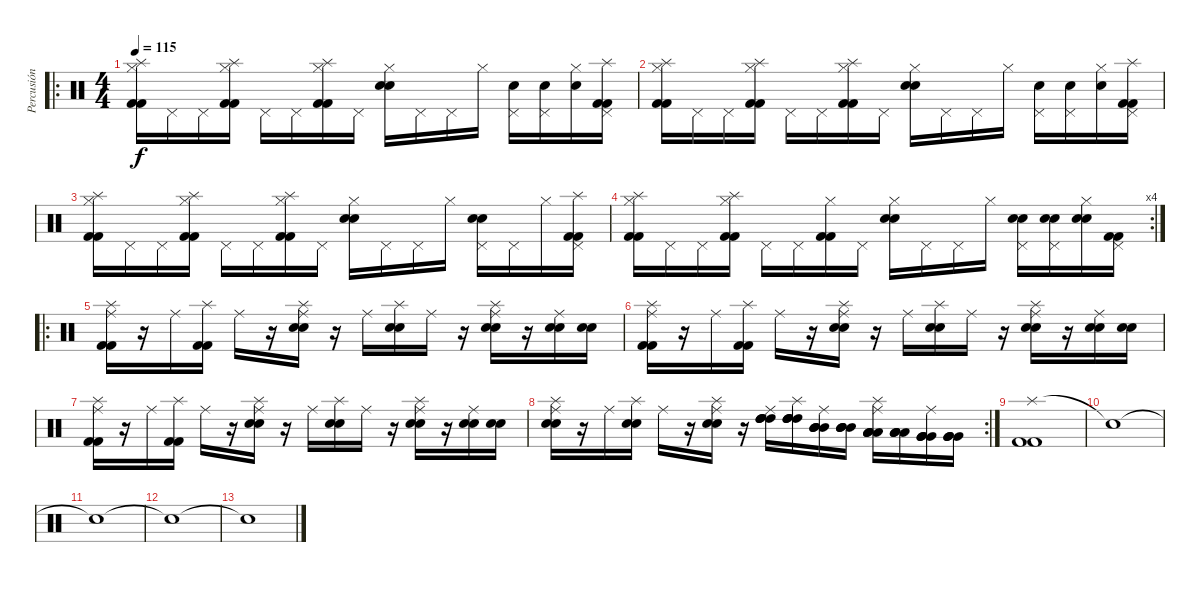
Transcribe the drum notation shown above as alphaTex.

\track ("Percusión" "Percusión") {instrument percussion}
\staff {score}
\articulation defaults
\ro
\ts (4 4)
\tempo 115
\clef neutral
\ks c
("Hi-Hat (closed)" "Splash (hit)" "Kick (hit) 2" "Kick (hit) 2").16{dy f} "Pedal Hi-Hat (hit)".16 "Pedal Hi-Hat (hit)".16 ("Hi-Hat (closed)" "Splash (hit)" "Kick (hit) 2" "Kick (hit) 2").16 "Pedal Hi-Hat (hit)".16 "Pedal Hi-Hat (hit)".16 ("Hi-Hat (closed)" "Splash (hit)" "Kick (hit) 2" "Kick (hit) 2").16 "Pedal Hi-Hat (hit)".16 ("Hi-Hat (closed)" "Electric Snare (hit)" "Electric Snare (hit)").16 "Pedal Hi-Hat (hit)".16 "Pedal Hi-Hat (hit)".16 "Hi-Hat (closed)".16 ("Pedal Hi-Hat (hit)" "Electric Snare (hit)").16 ("Pedal Hi-Hat (hit)" "Electric Snare (hit)").16 ("Hi-Hat (closed)" "Electric Snare (hit)").16 ("Pedal Hi-Hat (hit)" "Splash (hit)" "Kick (hit) 2" "Kick (hit) 2").16 |
("Hi-Hat (closed)" "Splash (hit)" "Kick (hit) 2" "Kick (hit) 2").16 "Pedal Hi-Hat (hit)".16 "Pedal Hi-Hat (hit)".16 ("Hi-Hat (closed)" "Splash (hit)" "Kick (hit) 2" "Kick (hit) 2").16 "Pedal Hi-Hat (hit)".16 "Pedal Hi-Hat (hit)".16 ("Hi-Hat (closed)" "Splash (hit)" "Kick (hit) 2" "Kick (hit) 2").16 "Pedal Hi-Hat (hit)".16 ("Hi-Hat (closed)" "Electric Snare (hit)" "Electric Snare (hit)").16 "Pedal Hi-Hat (hit)".16 "Pedal Hi-Hat (hit)".16 "Hi-Hat (closed)".16 ("Pedal Hi-Hat (hit)" "Electric Snare (hit)").16 ("Pedal Hi-Hat (hit)" "Electric Snare (hit)").16 ("Hi-Hat (closed)" "Electric Snare (hit)").16 ("Pedal Hi-Hat (hit)" "Splash (hit)" "Kick (hit) 2" "Kick (hit) 2").16 |
("Hi-Hat (closed)" "Splash (hit)" "Kick (hit) 2" "Kick (hit) 2").16 "Pedal Hi-Hat (hit)".16 "Pedal Hi-Hat (hit)".16 ("Hi-Hat (closed)" "Splash (hit)" "Kick (hit) 2" "Kick (hit) 2").16 "Pedal Hi-Hat (hit)".16 "Pedal Hi-Hat (hit)".16 ("Hi-Hat (closed)" "Splash (hit)" "Kick (hit) 2" "Kick (hit) 2").16 "Pedal Hi-Hat (hit)".16 ("Hi-Hat (closed)" "Electric Snare (hit)" "Electric Snare (hit)").16 "Pedal Hi-Hat (hit)".16 "Pedal Hi-Hat (hit)".16 "Hi-Hat (closed)".16 ("Pedal Hi-Hat (hit)" "Electric Snare (hit)" "Electric Snare (hit)").16 "Pedal Hi-Hat (hit)".16 "Hi-Hat (closed)".16 ("Pedal Hi-Hat (hit)" "Splash (hit)" "Kick (hit) 2" "Kick (hit) 2").16 |
\rc 4
("Hi-Hat (closed)" "Splash (hit)" "Kick (hit) 2" "Kick (hit) 2").16 "Pedal Hi-Hat (hit)".16 "Pedal Hi-Hat (hit)".16 ("Hi-Hat (closed)" "Splash (hit)" "Kick (hit) 2" "Kick (hit) 2").16 "Pedal Hi-Hat (hit)".16 "Pedal Hi-Hat (hit)".16 ("Hi-Hat (closed)" "Kick (hit) 2" "Kick (hit) 2").16 "Pedal Hi-Hat (hit)".16 ("Hi-Hat (closed)" "Electric Snare (hit)" "Electric Snare (hit)").16 "Pedal Hi-Hat (hit)".16 "Pedal Hi-Hat (hit)".16 "Hi-Hat (closed)".16 ("Pedal Hi-Hat (hit)" "Electric Snare (hit)" "Electric Snare (hit)").16 ("Pedal Hi-Hat (hit)" "Electric Snare (hit)" "Electric Snare (hit)").16 ("Hi-Hat (closed)" "Electric Snare (hit)" "Electric Snare (hit)").16 ("Pedal Hi-Hat (hit)" "Kick (hit) 2" "Kick (hit) 2").16 |
\ro
("Splash (hit)" "Ride (middle)" "Kick (hit) 2" "Kick (hit) 2").16 r.16 "Ride (middle)".16 ("Splash (hit)" "Kick (hit) 2" "Kick (hit) 2").16 "Ride (middle)".16 r.16 ("Splash (hit)" "Ride (middle)" "Electric Snare (hit)" "Electric Snare (hit)").16 r.16 "Ride (middle)".16 ("Splash (hit)" "Electric Snare (hit)" "Electric Snare (hit)").16 "Ride (middle)".16 r.16 ("Splash (hit)" "Ride (middle)" "Electric Snare (hit)" "Electric Snare (hit)").16 r.16 ("Ride (middle)" "Electric Snare (hit)" "Electric Snare (hit)").16 ("Electric Snare (hit)" "Electric Snare (hit)").16 |
("Splash (hit)" "Ride (middle)" "Kick (hit) 2" "Kick (hit) 2").16 r.16 "Ride (middle)".16 ("Splash (hit)" "Kick (hit) 2" "Kick (hit) 2").16 "Ride (middle)".16 r.16 ("Splash (hit)" "Ride (middle)" "Electric Snare (hit)" "Electric Snare (hit)").16 r.16 "Ride (middle)".16 ("Splash (hit)" "Electric Snare (hit)" "Electric Snare (hit)").16 "Ride (middle)".16 r.16 ("Splash (hit)" "Ride (middle)" "Electric Snare (hit)" "Electric Snare (hit)").16 r.16 ("Ride (middle)" "Electric Snare (hit)" "Electric Snare (hit)").16 ("Electric Snare (hit)" "Electric Snare (hit)").16 |
("Splash (hit)" "Ride (middle)" "Kick (hit) 2" "Kick (hit) 2").16 r.16 "Ride (middle)".16 ("Splash (hit)" "Kick (hit) 2" "Kick (hit) 2").16 "Ride (middle)".16 r.16 ("Splash (hit)" "Ride (middle)" "Electric Snare (hit)" "Electric Snare (hit)").16 r.16 "Ride (middle)".16 ("Splash (hit)" "Electric Snare (hit)" "Electric Snare (hit)").16 "Ride (middle)".16 r.16 ("Splash (hit)" "Ride (middle)" "Electric Snare (hit)" "Electric Snare (hit)").16 r.16 ("Ride (middle)" "Electric Snare (hit)" "Electric Snare (hit)").16 ("Electric Snare (hit)" "Electric Snare (hit)").16 |
\rc 2
("Splash (hit)" "Ride (middle)" "Electric Snare (hit)" "Electric Snare (hit)").16 r.16 "Ride (middle)".16 ("Splash (hit)" "Electric Snare (hit)" "Electric Snare (hit)").16 "Ride (middle)".16 r.16 ("Splash (hit)" "Ride (middle)" "Electric Snare (hit)" "Electric Snare (hit)").16 r.16 ("Ride (middle)" "High Tom (hit)" "High Tom (hit)" "High Tom (hit)" "High Tom (hit)").16 ("Splash (hit)" "High Tom (hit)" "High Tom (hit)" "High Tom (hit)" "High Tom (hit)").16 ("Ride (middle)" "Mid Tom (hit)" "Mid Tom (hit)" "Mid Tom (hit)" "Mid Tom (hit)").16 ("Mid Tom (hit)" "Mid Tom (hit)" "Mid Tom (hit)" "Mid Tom (hit)").16 ("Splash (hit)" "Ride (middle)" "Low Tom (hit)" "Low Tom (hit)" "Low Tom (hit)" "Low Tom (hit)").16 ("Low Tom (hit)" "Low Tom (hit)" "Low Tom (hit)" "Low Tom (hit)").16 ("Ride (middle)" "Very Low Tom (hit)" "Very Low Tom (hit)" "Very Low Tom (hit)" "Very Low Tom (hit)").16 ("Very Low Tom (hit)" "Very Low Tom (hit)" "Very Low Tom (hit)" "Very Low Tom (hit)").16 |
("Splash (hit)" "Kick (hit) 2" "Kick (hit) 2").1 |
"Snare (hit)"{t}.1 |
"Snare (hit)"{t}.1 |
"Snare (hit)"{t}.1 |
"Snare (hit)"{t}.1
